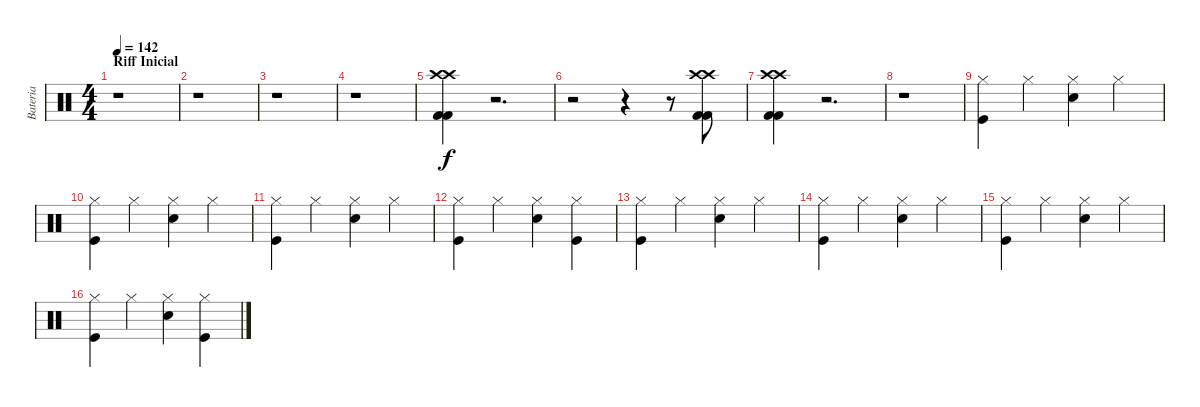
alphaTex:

\track ("Bateria" "Bateria") {instrument percussion}
\staff {score}
\articulation defaults
\ts (4 4)
\section ("" "Riff Inicial")
\tempo 142
\clef neutral
\ks c
r.1{dy f} |
r.1 |
r.1 |
r.1 |
("Crash high (hit)" "Crash high (hit)" "Kick (hit) 2" "Kick (hit) 2").4 r.2{d} |
r.2 r.4 r.8 ("Crash high (hit)" "Crash high (hit)" "Kick (hit) 2" "Kick (hit) 2").8 |
("Crash high (hit)" "Crash high (hit)" "Kick (hit) 2" "Kick (hit) 2").4 r.2{d} |
r.1 |
("Hi-Hat (closed)" "Kick (hit)").4 "Hi-Hat (closed)".4 ("Hi-Hat (closed)" "Snare (hit) 2").4 "Hi-Hat (closed)".4 |
("Hi-Hat (closed)" "Kick (hit)").4 "Hi-Hat (closed)".4 ("Hi-Hat (closed)" "Snare (hit) 2").4 "Hi-Hat (closed)".4 |
("Hi-Hat (closed)" "Kick (hit)").4 "Hi-Hat (closed)".4 ("Hi-Hat (closed)" "Snare (hit) 2").4 "Hi-Hat (closed)".4 |
("Hi-Hat (closed)" "Kick (hit)").4 "Hi-Hat (closed)".4 ("Hi-Hat (closed)" "Snare (hit) 2").4 ("Hi-Hat (closed)" "Kick (hit)").4 |
("Hi-Hat (closed)" "Kick (hit)").4 "Hi-Hat (closed)".4 ("Hi-Hat (closed)" "Snare (hit) 2").4 "Hi-Hat (closed)".4 |
("Hi-Hat (closed)" "Kick (hit)").4 "Hi-Hat (closed)".4 ("Hi-Hat (closed)" "Snare (hit) 2").4 "Hi-Hat (closed)".4 |
("Hi-Hat (closed)" "Kick (hit)").4 "Hi-Hat (closed)".4 ("Hi-Hat (closed)" "Snare (hit) 2").4 "Hi-Hat (closed)".4 |
("Hi-Hat (closed)" "Kick (hit)").4 "Hi-Hat (closed)".4 ("Hi-Hat (closed)" "Snare (hit) 2").4 ("Hi-Hat (closed)" "Kick (hit)").4
